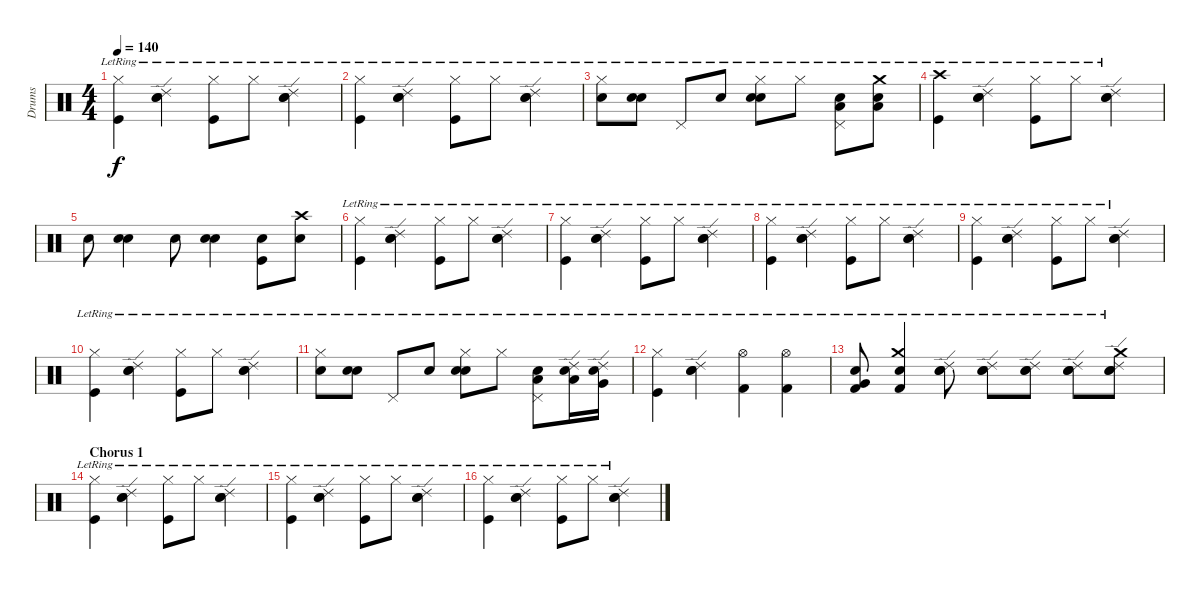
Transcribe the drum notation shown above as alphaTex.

\track ("Drums" "Drums") {instrument percussion}
\staff {score}
\articulation defaults
\ts (4 4)
\tempo 140
\clef neutral
\ks c
("Hi-Hat (closed)"{lr} "Kick (hit)"{lr}).4{dy f} ("Electric Snare (hit)"{lr} "Ride (edge) 2"{lr} "Snare (hit) 2"{lr}).4 ("Hi-Hat (closed)"{lr} "Kick (hit)"{lr}).8 "Hi-Hat (closed)"{lr}.8 ("Electric Snare (hit)"{lr} "Ride (edge) 2"{lr} "Snare (hit) 2"{lr}).4 |
("Hi-Hat (closed)"{lr} "Kick (hit)"{lr}).4 ("Electric Snare (hit)"{lr} "Ride (edge) 2"{lr} "Snare (hit) 2"{lr}).4 ("Hi-Hat (closed)"{lr} "Kick (hit)"{lr}).8 "Hi-Hat (closed)"{lr}.8 ("Electric Snare (hit)"{lr} "Ride (edge) 2"{lr} "Snare (hit) 2"{lr}).4 |
("Hi-Hat (closed)"{lr} "Snare (hit) 2"{lr}).8 ("Snare (hit) 2"{lr} "Electric Snare (hit)"{lr}).8 "Pedal Hi-Hat (hit)"{lr}.8 "Snare (hit) 2"{lr}.8 ("Hi-Hat (closed)"{lr} "Snare (hit) 2"{lr} "Electric Snare (hit)"{lr}).8 "Hi-Hat (closed)"{lr}.8 ("Pedal Hi-Hat (hit)"{lr} "Snare (hit) 2"{lr} "Low Tom (hit)"{lr}).8 ("Crash medium (hit)"{lr} "Snare (hit) 2"{lr} "Low Tom (hit)"{lr}).8 |
("Crash high (hit)"{lr} "Kick (hit)"{lr}).4 ("Electric Snare (hit)"{lr} "Ride (edge) 2"{lr} "Snare (hit) 2"{lr}).4 ("Hi-Hat (closed)"{lr} "Kick (hit)"{lr}).8 "Hi-Hat (closed)"{lr}.8 ("Electric Snare (hit)"{lr} "Ride (edge) 2"{lr} "Snare (hit) 2"{lr}).4 |
"Snare (hit) 2".8 ("Snare (hit) 2" "Electric Snare (hit)").4 "Snare (hit) 2".8 ("Snare (hit) 2" "Electric Snare (hit)").4 ("Snare (hit) 2" "Kick (hit)").8 ("Crash high (hit)" "Snare (hit) 2").8 |
("Hi-Hat (closed)"{lr} "Kick (hit)"{lr}).4 ("Electric Snare (hit)"{lr} "Ride (edge) 2"{lr} "Snare (hit) 2"{lr}).4 ("Hi-Hat (closed)"{lr} "Kick (hit)"{lr}).8 "Hi-Hat (closed)"{lr}.8 ("Electric Snare (hit)"{lr} "Ride (edge) 2"{lr} "Snare (hit) 2"{lr}).4 |
("Hi-Hat (closed)"{lr} "Kick (hit)"{lr}).4 ("Electric Snare (hit)"{lr} "Ride (edge) 2"{lr} "Snare (hit) 2"{lr}).4 ("Hi-Hat (closed)"{lr} "Kick (hit)"{lr}).8 "Hi-Hat (closed)"{lr}.8 ("Electric Snare (hit)"{lr} "Ride (edge) 2"{lr} "Snare (hit) 2"{lr}).4 |
("Hi-Hat (closed)"{lr} "Kick (hit)"{lr}).4 ("Electric Snare (hit)"{lr} "Ride (edge) 2"{lr} "Snare (hit) 2"{lr}).4 ("Hi-Hat (closed)"{lr} "Kick (hit)"{lr}).8 "Hi-Hat (closed)"{lr}.8 ("Electric Snare (hit)"{lr} "Ride (edge) 2"{lr} "Snare (hit) 2"{lr}).4 |
("Hi-Hat (closed)"{lr} "Kick (hit)"{lr}).4 ("Electric Snare (hit)"{lr} "Ride (edge) 2"{lr} "Snare (hit) 2"{lr}).4 ("Hi-Hat (closed)"{lr} "Kick (hit)"{lr}).8 "Hi-Hat (closed)"{lr}.8 ("Electric Snare (hit)"{lr} "Ride (edge) 2"{lr} "Snare (hit) 2"{lr}).4 |
("Hi-Hat (closed)"{lr} "Kick (hit)"{lr}).4 ("Electric Snare (hit)"{lr} "Ride (edge) 2"{lr} "Snare (hit) 2"{lr}).4 ("Hi-Hat (closed)"{lr} "Kick (hit)"{lr}).8 "Hi-Hat (closed)"{lr}.8 ("Electric Snare (hit)"{lr} "Ride (edge) 2"{lr} "Snare (hit) 2"{lr}).4 |
("Hi-Hat (closed)"{lr} "Snare (hit) 2"{lr}).8 ("Snare (hit) 2"{lr} "Electric Snare (hit)"{lr}).8 "Pedal Hi-Hat (hit)"{lr}.8 "Snare (hit) 2"{lr}.8 ("Hi-Hat (closed)"{lr} "Snare (hit) 2"{lr} "Electric Snare (hit)"{lr}).8 "Hi-Hat (closed)"{lr}.8 ("Pedal Hi-Hat (hit)"{lr} "Snare (hit) 2"{lr} "Low Tom (hit)"{lr}).8 ("Ride (edge) 2"{lr} "Snare (hit) 2"{lr} "Low Tom (hit)"{lr}).16 ("Ride (edge) 2"{lr} "Snare (hit) 2"{lr} "Very Low Tom (hit)"{lr}).16 |
("Hi-Hat (closed)"{lr} "Kick (hit)"{lr}).4 ("Electric Snare (hit)"{lr} "Ride (edge) 2"{lr} "Snare (hit) 2"{lr}).4 ("Kick (hit) 2"{lr} "Hi-Hat (open)"{lr}).4 ("Kick (hit) 2"{lr} "Hi-Hat (open)").4 |
("Kick (hit) 2"{lr} "Very Low Tom (hit)"{lr} "Electric Snare (hit)"{lr}).8 ("Kick (hit) 2"{lr} "Crash medium (hit)" "Electric Snare (hit)"{lr}).4 ("Snare (hit) 2"{lr} "Electric Snare (hit)"{lr} "Ride (edge) 2"{lr}).8 ("Snare (hit) 2"{lr} "Electric Snare (hit)"{lr} "Ride (edge) 2"{lr}).8 ("Snare (hit) 2"{lr} "Electric Snare (hit)"{lr} "Ride (edge) 2"{lr}).8 ("Snare (hit) 2"{lr} "Electric Snare (hit)"{lr} "Ride (edge) 2"{lr}).8 ("Snare (hit) 2"{lr} "Electric Snare (hit)"{lr} "Ride (edge) 2"{lr} "Crash medium (hit)"{lr}).8 |
\section ("" "Chorus 1")
("Hi-Hat (closed)"{lr} "Kick (hit)"{lr}).4 ("Electric Snare (hit)"{lr} "Ride (edge) 2"{lr} "Snare (hit) 2"{lr}).4 ("Hi-Hat (closed)"{lr} "Kick (hit)"{lr}).8 "Hi-Hat (closed)"{lr}.8 ("Electric Snare (hit)"{lr} "Ride (edge) 2"{lr} "Snare (hit) 2"{lr}).4 |
("Hi-Hat (closed)"{lr} "Kick (hit)"{lr}).4 ("Electric Snare (hit)"{lr} "Ride (edge) 2"{lr} "Snare (hit) 2"{lr}).4 ("Hi-Hat (closed)"{lr} "Kick (hit)"{lr}).8 "Hi-Hat (closed)"{lr}.8 ("Electric Snare (hit)"{lr} "Ride (edge) 2"{lr} "Snare (hit) 2"{lr}).4 |
("Hi-Hat (closed)"{lr} "Kick (hit)"{lr}).4 ("Electric Snare (hit)"{lr} "Ride (edge) 2"{lr} "Snare (hit) 2"{lr}).4 ("Hi-Hat (closed)"{lr} "Kick (hit)"{lr}).8 "Hi-Hat (closed)"{lr}.8 ("Electric Snare (hit)"{lr} "Ride (edge) 2"{lr} "Snare (hit) 2"{lr}).4
